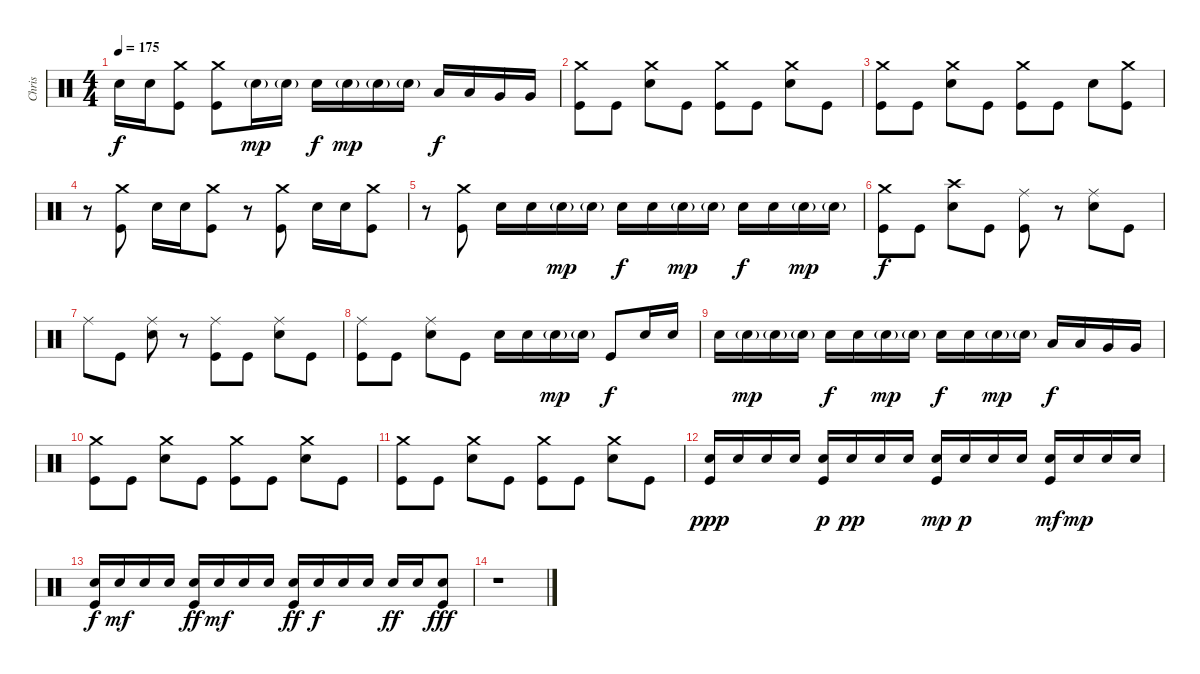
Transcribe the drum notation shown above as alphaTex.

\track ("Chris" "Chris") {instrument percussion}
\staff {score}
\articulation defaults
\ts (4 4)
\tempo 175
\clef neutral
\ks c "Snare (hit) 2".16{dy f} "Snare (hit) 2".16
("Crash medium (hit)" "Kick (hit)").8 ("Crash medium (hit)" "Kick (hit)").8 "Snare (hit) 2"{g}.16{dy mp} "Snare (hit) 2"{g}.16 "Snare (hit) 2".16{dy f} "Snare (hit) 2"{g}.16{dy mp} "Snare (hit) 2"{g}.16 "Snare (hit) 2"{g}.16 "Low Tom (hit)".16{dy f} "Low Tom (hit)".16 "Very Low Tom (hit)".16 "Very Low Tom (hit)".16 |
("Crash medium (hit)" "Kick (hit)").8 "Kick (hit)".8 ("Crash medium (hit)" "Snare (hit) 2").8 "Kick (hit)".8 ("Crash medium (hit)" "Kick (hit)").8 "Kick (hit)".8 ("Crash medium (hit)" "Snare (hit) 2").8 "Kick (hit)".8 |
("Crash medium (hit)" "Kick (hit)").8 "Kick (hit)".8 ("Crash medium (hit)" "Snare (hit) 2").8 "Kick (hit)".8 ("Crash medium (hit)" "Kick (hit)").8 "Kick (hit)".8 "Snare (hit) 2".8 ("Crash medium (hit)" "Kick (hit)").8 |
r.8 ("Crash medium (hit)" "Kick (hit)").8 "Snare (hit) 2".16 "Snare (hit) 2".16 ("Crash medium (hit)" "Kick (hit)").8 r.8 ("Crash medium (hit)" "Kick (hit)").8 "Snare (hit) 2".16 "Snare (hit) 2".16 ("Crash medium (hit)" "Kick (hit)").8 |
r.8 ("Crash medium (hit)" "Kick (hit)").8 "Snare (hit) 2".16 "Snare (hit) 2".16 "Snare (hit) 2"{g}.16{dy mp} "Snare (hit) 2"{g}.16 "Snare (hit) 2".16{dy f} "Snare (hit) 2".16 "Snare (hit) 2"{g}.16{dy mp} "Snare (hit) 2"{g}.16 "Snare (hit) 2".16{dy f} "Snare (hit) 2".16 "Snare (hit) 2"{g}.16{dy mp} "Snare (hit) 2"{g}.16 |
("Crash medium (hit)" "Kick (hit)").8{dy f} "Kick (hit)".8 ("Crash high (hit)" "Snare (hit) 2").8 "Kick (hit)".8 ("Ride (middle)" "Kick (hit)").8 r.8 ("Ride (middle)" "Snare (hit) 2").8 "Kick (hit)".8 |
"Ride (middle)".8 "Kick (hit)".8 ("Ride (middle)" "Snare (hit) 2").8 r.8 ("Ride (middle)" "Kick (hit)").8 "Kick (hit)".8 ("Ride (middle)" "Snare (hit) 2").8 "Kick (hit)".8 |
("Ride (middle)" "Kick (hit)").8 "Kick (hit)".8 ("Ride (middle)" "Snare (hit) 2").8 "Kick (hit)".8 "Snare (hit) 2".16 "Snare (hit) 2".16 "Snare (hit) 2"{g}.16{dy mp} "Snare (hit) 2"{g}.16 "Kick (hit)".8{dy f} "Snare (hit) 2".16 "Snare (hit) 2".16 |
"Snare (hit) 2".16 "Snare (hit) 2"{g}.16{dy mp} "Snare (hit) 2"{g}.16 "Snare (hit) 2"{g}.16 "Snare (hit) 2".16{dy f} "Snare (hit) 2".16 "Snare (hit) 2"{g}.16{dy mp} "Snare (hit) 2"{g}.16 "Snare (hit) 2".16{dy f} "Snare (hit) 2".16 "Snare (hit) 2"{g}.16{dy mp} "Snare (hit) 2"{g}.16 "Low Tom (hit)".16{dy f} "Low Tom (hit)".16 "Very Low Tom (hit)".16 "Very Low Tom (hit)".16 |
("Crash medium (hit)" "Kick (hit)").8 "Kick (hit)".8 ("Crash medium (hit)" "Snare (hit) 2").8 "Kick (hit)".8 ("Crash medium (hit)" "Kick (hit)").8 "Kick (hit)".8 ("Crash medium (hit)" "Snare (hit) 2").8 "Kick (hit)".8 |
("Crash medium (hit)" "Kick (hit)").8 "Kick (hit)".8 ("Crash medium (hit)" "Snare (hit) 2").8 "Kick (hit)".8 ("Crash medium (hit)" "Kick (hit)").8 "Kick (hit)".8 ("Crash medium (hit)" "Snare (hit) 2").8 "Kick (hit)".8 |
("Snare (hit) 2" "Kick (hit)").16{dy ppp} "Snare (hit) 2".16 "Snare (hit) 2".16 "Snare (hit) 2".16 ("Snare (hit) 2" "Kick (hit)").16{dy p} "Snare (hit) 2".16{dy pp} "Snare (hit) 2".16 "Snare (hit) 2".16 ("Snare (hit) 2" "Kick (hit)").16{dy mp} "Snare (hit) 2".16{dy p} "Snare (hit) 2".16 "Snare (hit) 2".16 ("Snare (hit) 2" "Kick (hit)").16{dy mf} "Snare (hit) 2".16{dy mp} "Snare (hit) 2".16 "Snare (hit) 2".16 |
("Snare (hit) 2" "Kick (hit)").16{dy f} "Snare (hit) 2".16{dy mf} "Snare (hit) 2".16 "Snare (hit) 2".16 ("Snare (hit) 2" "Kick (hit)").16{dy ff} "Snare (hit) 2".16{dy mf} "Snare (hit) 2".16 "Snare (hit) 2".16 ("Snare (hit) 2" "Kick (hit)").16{dy ff} "Snare (hit) 2".16{dy f} "Snare (hit) 2".16 "Snare (hit) 2".16 "Snare (hit) 2".16{dy ff} "Snare (hit) 2".16 ("Snare (hit) 2" "Kick (hit)").8{dy fff} |
r.1
